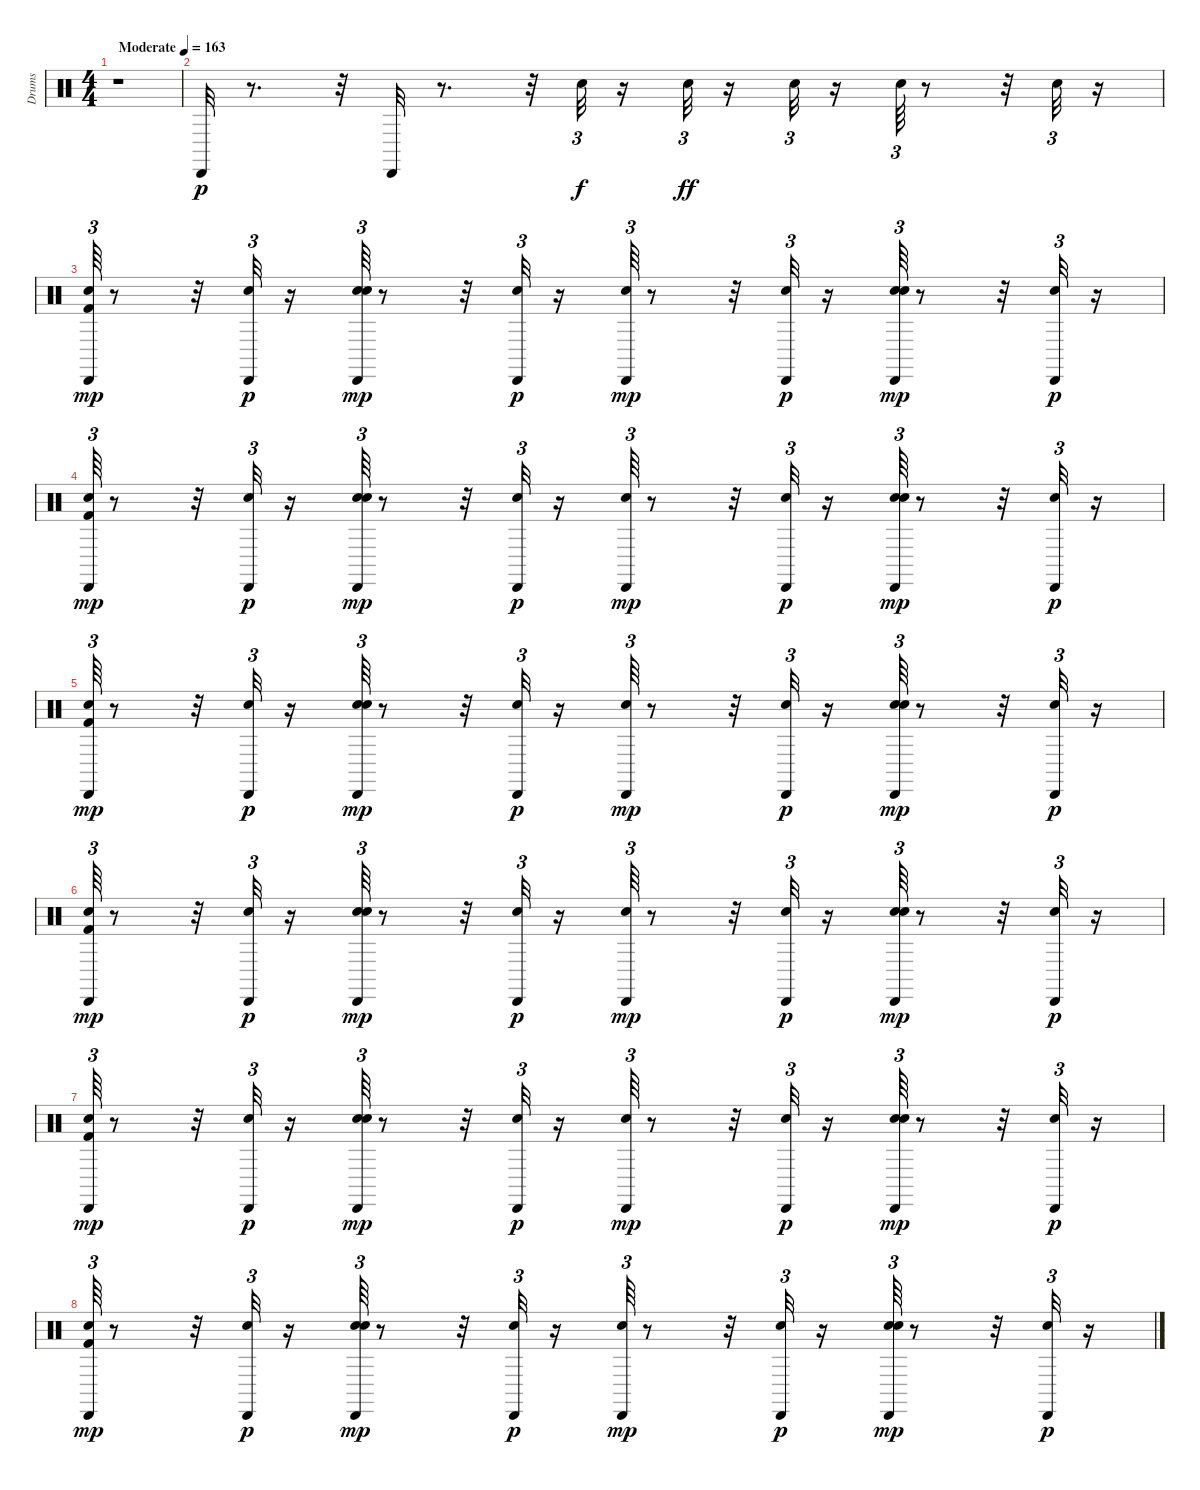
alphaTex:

\track ("Drums               " "Drums     ") {instrument percussion}
\staff {score}
\articulation defaults
\ts (4 4)
\tempo (163 "Moderate")
\clef neutral
\ks c
r.1{dy p} |
"Cabasa (hit)".32 r.8{d} r.32 "Cabasa (hit)".32 r.8{d} r.32 "Snare (hit) 2".32{tu (3 2) dy f} r.16 "Snare (hit) 2".32{tu (3 2) dy ff} r.16 "Snare (hit) 2".32{tu (3 2)} r.16 "Snare (hit) 2".64{tu (3 2)} r.8 r.32 "Snare (hit) 2".32{tu (3 2)} r.16 |
("Kick (hit) 2" "Snare (hit) 2" "Cabasa (hit)").64{tu (3 2) dy mp} r.8 r.32 ("Snare (hit) 2" "Cabasa (hit)").32{tu (3 2) dy p} r.16 ("Snare (hit) 2" "Hand Clap (hit)" "Cabasa (hit)").64{tu (3 2) dy mp} r.8 r.32 ("Snare (hit) 2" "Cabasa (hit)").32{tu (3 2) dy p} r.16 ("Snare (hit) 2" "Cabasa (hit)").64{tu (3 2) dy mp} r.8 r.32 ("Snare (hit) 2" "Cabasa (hit)").32{tu (3 2) dy p} r.16 ("Snare (hit) 2" "Hand Clap (hit)" "Cabasa (hit)").64{tu (3 2) dy mp} r.8 r.32 ("Snare (hit) 2" "Cabasa (hit)").32{tu (3 2) dy p} r.16 |
("Kick (hit) 2" "Snare (hit) 2" "Cabasa (hit)").64{tu (3 2) dy mp} r.8 r.32 ("Snare (hit) 2" "Cabasa (hit)").32{tu (3 2) dy p} r.16 ("Snare (hit) 2" "Hand Clap (hit)" "Cabasa (hit)").64{tu (3 2) dy mp} r.8 r.32 ("Snare (hit) 2" "Cabasa (hit)").32{tu (3 2) dy p} r.16 ("Snare (hit) 2" "Cabasa (hit)").64{tu (3 2) dy mp} r.8 r.32 ("Snare (hit) 2" "Cabasa (hit)").32{tu (3 2) dy p} r.16 ("Snare (hit) 2" "Hand Clap (hit)" "Cabasa (hit)").64{tu (3 2) dy mp} r.8 r.32 ("Snare (hit) 2" "Cabasa (hit)").32{tu (3 2) dy p} r.16 |
("Kick (hit) 2" "Snare (hit) 2" "Cabasa (hit)").64{tu (3 2) dy mp} r.8 r.32 ("Snare (hit) 2" "Cabasa (hit)").32{tu (3 2) dy p} r.16 ("Snare (hit) 2" "Hand Clap (hit)" "Cabasa (hit)").64{tu (3 2) dy mp} r.8 r.32 ("Snare (hit) 2" "Cabasa (hit)").32{tu (3 2) dy p} r.16 ("Snare (hit) 2" "Cabasa (hit)").64{tu (3 2) dy mp} r.8 r.32 ("Snare (hit) 2" "Cabasa (hit)").32{tu (3 2) dy p} r.16 ("Snare (hit) 2" "Hand Clap (hit)" "Cabasa (hit)").64{tu (3 2) dy mp} r.8 r.32 ("Snare (hit) 2" "Cabasa (hit)").32{tu (3 2) dy p} r.16 |
("Kick (hit) 2" "Snare (hit) 2" "Cabasa (hit)").64{tu (3 2) dy mp} r.8 r.32 ("Snare (hit) 2" "Cabasa (hit)").32{tu (3 2) dy p} r.16 ("Snare (hit) 2" "Hand Clap (hit)" "Cabasa (hit)").64{tu (3 2) dy mp} r.8 r.32 ("Snare (hit) 2" "Cabasa (hit)").32{tu (3 2) dy p} r.16 ("Snare (hit) 2" "Cabasa (hit)").64{tu (3 2) dy mp} r.8 r.32 ("Snare (hit) 2" "Cabasa (hit)").32{tu (3 2) dy p} r.16 ("Snare (hit) 2" "Hand Clap (hit)" "Cabasa (hit)").64{tu (3 2) dy mp} r.8 r.32 ("Snare (hit) 2" "Cabasa (hit)").32{tu (3 2) dy p} r.16 |
("Kick (hit) 2" "Snare (hit) 2" "Cabasa (hit)").64{tu (3 2) dy mp} r.8 r.32 ("Snare (hit) 2" "Cabasa (hit)").32{tu (3 2) dy p} r.16 ("Snare (hit) 2" "Hand Clap (hit)" "Cabasa (hit)").64{tu (3 2) dy mp} r.8 r.32 ("Snare (hit) 2" "Cabasa (hit)").32{tu (3 2) dy p} r.16 ("Snare (hit) 2" "Cabasa (hit)").64{tu (3 2) dy mp} r.8 r.32 ("Snare (hit) 2" "Cabasa (hit)").32{tu (3 2) dy p} r.16 ("Snare (hit) 2" "Hand Clap (hit)" "Cabasa (hit)").64{tu (3 2) dy mp} r.8 r.32 ("Snare (hit) 2" "Cabasa (hit)").32{tu (3 2) dy p} r.16 |
("Kick (hit) 2" "Snare (hit) 2" "Cabasa (hit)").64{tu (3 2) dy mp} r.8 r.32 ("Snare (hit) 2" "Cabasa (hit)").32{tu (3 2) dy p} r.16 ("Snare (hit) 2" "Hand Clap (hit)" "Cabasa (hit)").64{tu (3 2) dy mp} r.8 r.32 ("Snare (hit) 2" "Cabasa (hit)").32{tu (3 2) dy p} r.16 ("Snare (hit) 2" "Cabasa (hit)").64{tu (3 2) dy mp} r.8 r.32 ("Snare (hit) 2" "Cabasa (hit)").32{tu (3 2) dy p} r.16 ("Snare (hit) 2" "Hand Clap (hit)" "Cabasa (hit)").64{tu (3 2) dy mp} r.8 r.32 ("Snare (hit) 2" "Cabasa (hit)").32{tu (3 2) dy p} r.16
